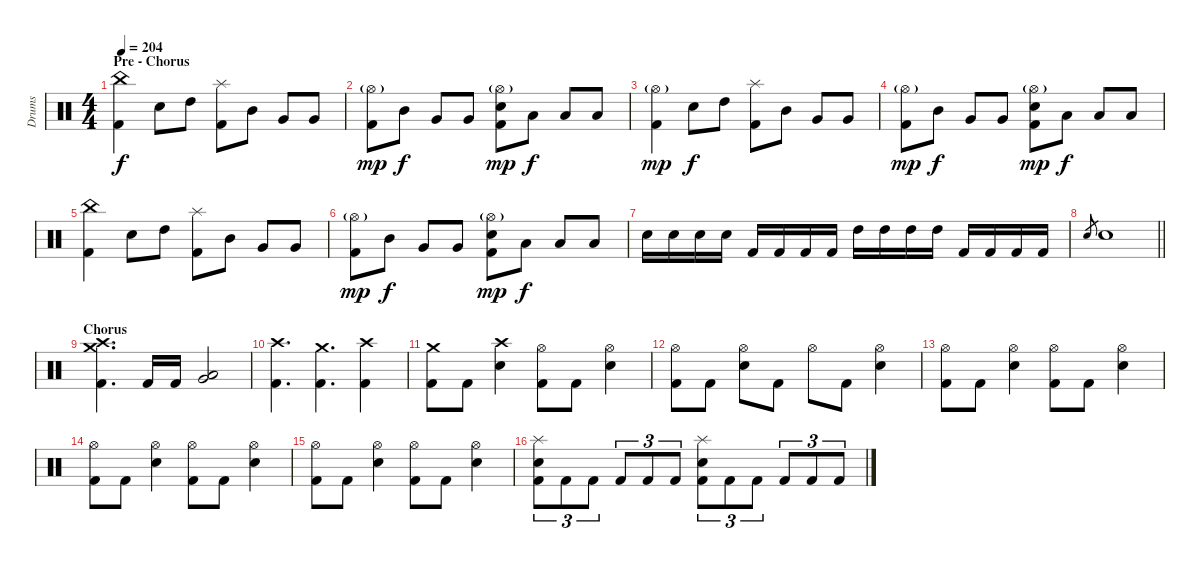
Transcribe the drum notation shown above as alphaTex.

\track ("Drums" "Drums") {instrument percussion}
\staff {score}
\articulation defaults
\ts (4 4)
\section ("" "Pre - Chorus")
\tempo 204
\clef neutral
\ks c
("China (hit)" "Kick (hit) 2").4{dy f} "Electric Snare (hit)".8 "High Tom (hit)".8 ("Splash (hit)" "Kick (hit) 2").8 "Mid Tom (hit)".8 "Very Low Tom (hit)".8 "Very Low Tom (hit)".8 |
("Hi-Hat (open)"{g} "Kick (hit) 2").8{dy mp} "Mid Tom (hit)".8{dy f} "Very Low Tom (hit)".8 "Very Low Tom (hit)".8 ("Hi-Hat (open)"{g} "Electric Snare (hit)" "Kick (hit) 2").8{dy mp} "Low Tom (hit)".8{dy f} "Low Floor Tom (hit)".8 "Low Floor Tom (hit)".8 |
("Hi-Hat (open)"{g} "Kick (hit) 2").4{dy mp} "Electric Snare (hit)".8{dy f} "High Tom (hit)".8 ("Splash (hit)" "Kick (hit) 2").8 "Mid Tom (hit)".8 "Very Low Tom (hit)".8 "Very Low Tom (hit)".8 |
("Hi-Hat (open)"{g} "Kick (hit) 2").8{dy mp} "Mid Tom (hit)".8{dy f} "Very Low Tom (hit)".8 "Very Low Tom (hit)".8 ("Hi-Hat (open)"{g} "Electric Snare (hit)" "Kick (hit) 2").8{dy mp} "Low Tom (hit)".8{dy f} "Low Floor Tom (hit)".8 "Low Floor Tom (hit)".8 |
("China (hit)" "Kick (hit) 2").4 "Electric Snare (hit)".8 "High Tom (hit)".8 ("Splash (hit)" "Kick (hit) 2").8 "Mid Tom (hit)".8 "Very Low Tom (hit)".8 "Very Low Tom (hit)".8 |
("Hi-Hat (open)"{g} "Kick (hit) 2").8{dy mp} "Mid Tom (hit)".8{dy f} "Very Low Tom (hit)".8 "Very Low Tom (hit)".8 ("Hi-Hat (open)"{g} "Electric Snare (hit)" "Kick (hit) 2").8{dy mp} "Low Tom (hit)".8{dy f} "Low Floor Tom (hit)".8 "Low Floor Tom (hit)".8 |
"Electric Snare (hit)".16 "Electric Snare (hit)".16 "Electric Snare (hit)".16 "Electric Snare (hit)".16 "Kick (hit) 2".16 "Kick (hit) 2".16 "Kick (hit) 2".16 "Kick (hit) 2".16 "High Tom (hit)".16 "High Tom (hit)".16 "High Tom (hit)".16 "High Tom (hit)".16 "Kick (hit) 2".16 "Kick (hit) 2".16 "Kick (hit) 2".16 "Kick (hit) 2".16 |
\barLineRight lightlight "Electric Snare (hit)".8{gr} "Electric Snare (hit)".1
|
\section ("" "Chorus")
("Crash medium (hit)" "Crash high (hit)" "Kick (hit) 2").4{d} "Kick (hit) 2".16 "Kick (hit) 2".16 ("Very Low Tom (hit)" "Low Floor Tom (hit)").2 |
("Crash high (hit)" "Kick (hit) 2").4{d} ("Crash medium (hit)" "Kick (hit) 2").4{d} ("Crash high (hit)" "Kick (hit) 2").4 |
("Crash medium (hit)" "Kick (hit) 2").8 "Kick (hit) 2".8 ("Crash high (hit)" "Electric Snare (hit)").4 ("Hi-Hat (open)" "Kick (hit) 2").8 "Kick (hit) 2".8 ("Hi-Hat (open)" "Electric Snare (hit)").4 |
("Hi-Hat (open)" "Kick (hit) 2").8 "Kick (hit) 2".8 ("Hi-Hat (open)" "Electric Snare (hit)").8 "Kick (hit) 2".8 "Hi-Hat (open)".8 "Kick (hit) 2".8 ("Hi-Hat (open)" "Electric Snare (hit)").4 |
("Hi-Hat (open)" "Kick (hit) 2").8 "Kick (hit) 2".8 ("Hi-Hat (open)" "Electric Snare (hit)").4 ("Hi-Hat (open)" "Kick (hit) 2").8 "Kick (hit) 2".8 ("Hi-Hat (open)" "Electric Snare (hit)").4 |
("Hi-Hat (open)" "Kick (hit) 2").8 "Kick (hit) 2".8 ("Hi-Hat (open)" "Electric Snare (hit)").4 ("Hi-Hat (open)" "Kick (hit) 2").8 "Kick (hit) 2".8 ("Hi-Hat (open)" "Electric Snare (hit)").4 |
("Hi-Hat (open)" "Kick (hit) 2").8 "Kick (hit) 2".8 ("Hi-Hat (open)" "Electric Snare (hit)").4 ("Hi-Hat (open)" "Kick (hit) 2").8 "Kick (hit) 2".8 ("Hi-Hat (open)" "Electric Snare (hit)").4 |
("Splash (hit)" "Electric Snare (hit)" "Kick (hit) 2").8{tu (3 2)} "Kick (hit) 2".8{tu (3 2)} "Kick (hit) 2".8{tu (3 2)} "Kick (hit) 2".8{tu (3 2)} "Kick (hit) 2".8{tu (3 2)} "Kick (hit) 2".8{tu (3 2)} ("Splash (hit)" "Electric Snare (hit)" "Kick (hit) 2").8{tu (3 2)} "Kick (hit) 2".8{tu (3 2)} "Kick (hit) 2".8{tu (3 2)} "Kick (hit) 2".8{tu (3 2)} "Kick (hit) 2".8{tu (3 2)} "Kick (hit) 2".8{tu (3 2)}
